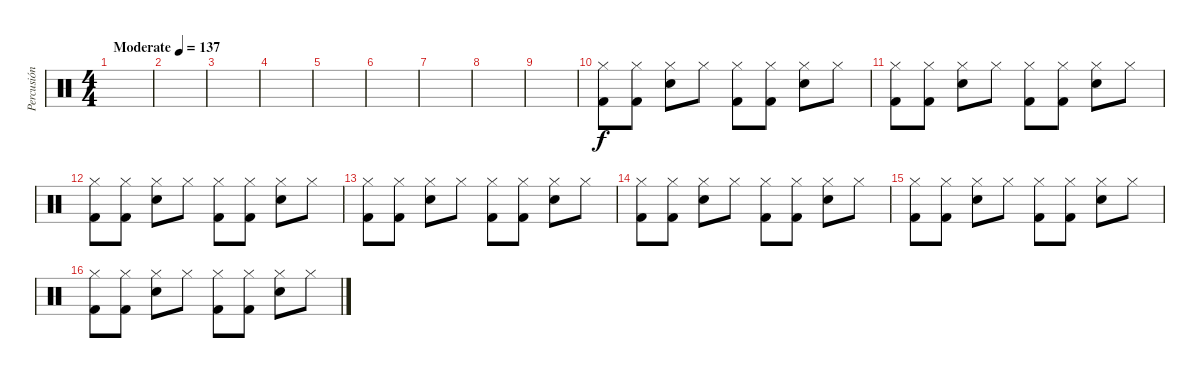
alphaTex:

\track ("Percusión" "Percusión") {instrument percussion}
\staff {score}
\articulation defaults
\ts (4 4)
\tempo (137 "Moderate")
\clef neutral
\ks c
|
|
|
|
|
|
|
|
|
("Hi-Hat (closed)" "Kick (hit) 2").8 ("Hi-Hat (closed)" "Kick (hit) 2").8 ("Hi-Hat (closed)" "Electric Snare (hit)").8 "Hi-Hat (closed)".8 ("Hi-Hat (closed)" "Kick (hit) 2").8 ("Hi-Hat (closed)" "Kick (hit) 2").8 ("Hi-Hat (closed)" "Electric Snare (hit)").8 "Hi-Hat (closed)".8 |
("Hi-Hat (closed)" "Kick (hit) 2").8 ("Hi-Hat (closed)" "Kick (hit) 2").8 ("Hi-Hat (closed)" "Electric Snare (hit)").8 "Hi-Hat (closed)".8 ("Hi-Hat (closed)" "Kick (hit) 2").8 ("Hi-Hat (closed)" "Kick (hit) 2").8 ("Hi-Hat (closed)" "Electric Snare (hit)").8 "Hi-Hat (closed)".8 |
("Hi-Hat (closed)" "Kick (hit) 2").8 ("Hi-Hat (closed)" "Kick (hit) 2").8 ("Hi-Hat (closed)" "Electric Snare (hit)").8 "Hi-Hat (closed)".8 ("Hi-Hat (closed)" "Kick (hit) 2").8 ("Hi-Hat (closed)" "Kick (hit) 2").8 ("Hi-Hat (closed)" "Electric Snare (hit)").8 "Hi-Hat (closed)".8 |
("Hi-Hat (closed)" "Kick (hit) 2").8 ("Hi-Hat (closed)" "Kick (hit) 2").8 ("Hi-Hat (closed)" "Electric Snare (hit)").8 "Hi-Hat (closed)".8 ("Hi-Hat (closed)" "Kick (hit) 2").8 ("Hi-Hat (closed)" "Kick (hit) 2").8 ("Hi-Hat (closed)" "Electric Snare (hit)").8 "Hi-Hat (closed)".8 |
("Hi-Hat (closed)" "Kick (hit) 2").8 ("Hi-Hat (closed)" "Kick (hit) 2").8 ("Hi-Hat (closed)" "Electric Snare (hit)").8 "Hi-Hat (closed)".8 ("Hi-Hat (closed)" "Kick (hit) 2").8 ("Hi-Hat (closed)" "Kick (hit) 2").8 ("Hi-Hat (closed)" "Electric Snare (hit)").8 "Hi-Hat (closed)".8 |
("Hi-Hat (closed)" "Kick (hit) 2").8 ("Hi-Hat (closed)" "Kick (hit) 2").8 ("Hi-Hat (closed)" "Electric Snare (hit)").8 "Hi-Hat (closed)".8 ("Hi-Hat (closed)" "Kick (hit) 2").8 ("Hi-Hat (closed)" "Kick (hit) 2").8 ("Hi-Hat (closed)" "Electric Snare (hit)").8 "Hi-Hat (closed)".8 |
("Hi-Hat (closed)" "Kick (hit) 2").8 ("Hi-Hat (closed)" "Kick (hit) 2").8 ("Hi-Hat (closed)" "Electric Snare (hit)").8 "Hi-Hat (closed)".8 ("Hi-Hat (closed)" "Kick (hit) 2").8 ("Hi-Hat (closed)" "Kick (hit) 2").8 ("Hi-Hat (closed)" "Electric Snare (hit)").8 "Hi-Hat (closed)".8
